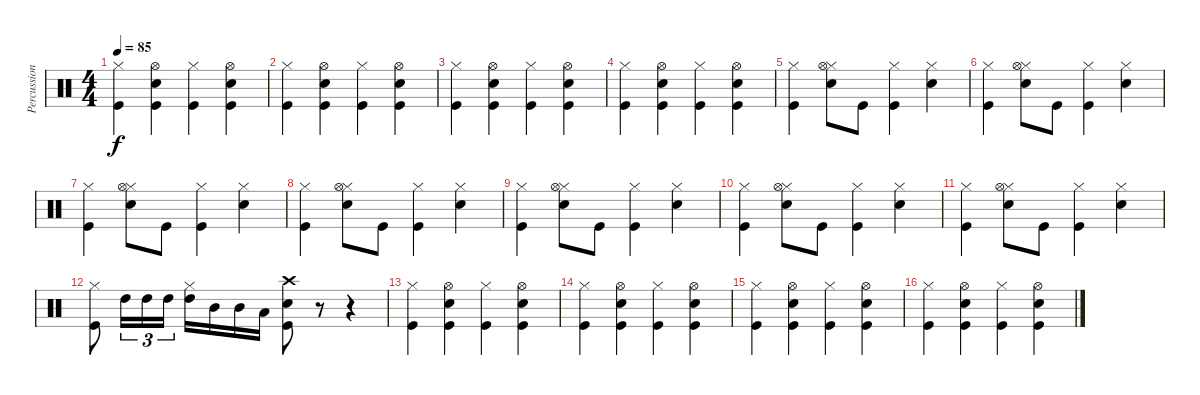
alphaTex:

\track ("Percussions" "Percussion") {instrument percussion}
\staff {score}
\articulation defaults
\ts (4 4)
\tempo 85
\clef neutral
\ks c
("Kick (hit)" "Hi-Hat (closed)").4{dy f} ("Kick (hit)" "Snare (hit) 2" "Hi-Hat (open)").4 ("Kick (hit)" "Hi-Hat (closed)").4 ("Kick (hit)" "Snare (hit) 2" "Hi-Hat (open)").4 |
("Kick (hit)" "Hi-Hat (closed)").4 ("Kick (hit)" "Snare (hit) 2" "Hi-Hat (open)").4 ("Kick (hit)" "Hi-Hat (closed)").4 ("Kick (hit)" "Snare (hit) 2" "Hi-Hat (open)").4 |
("Kick (hit)" "Hi-Hat (closed)").4 ("Kick (hit)" "Snare (hit) 2" "Hi-Hat (open)").4 ("Kick (hit)" "Hi-Hat (closed)").4 ("Kick (hit)" "Snare (hit) 2" "Hi-Hat (open)").4 |
("Kick (hit)" "Hi-Hat (closed)").4 ("Kick (hit)" "Snare (hit) 2" "Hi-Hat (open)").4 ("Kick (hit)" "Hi-Hat (closed)").4 ("Kick (hit)" "Snare (hit) 2" "Hi-Hat (open)").4 |
("Hi-Hat (closed)" "Kick (hit)").4 ("Hi-Hat (closed)" "Hi-Hat (open)" "Snare (hit) 2").8 "Kick (hit)".8 ("Hi-Hat (closed)" "Kick (hit)").4 ("Hi-Hat (closed)" "Snare (hit) 2").4 |
("Hi-Hat (closed)" "Kick (hit)").4 ("Hi-Hat (closed)" "Hi-Hat (open)" "Snare (hit) 2").8 "Kick (hit)".8 ("Hi-Hat (closed)" "Kick (hit)").4 ("Hi-Hat (closed)" "Snare (hit) 2").4 |
("Hi-Hat (closed)" "Kick (hit)").4 ("Hi-Hat (closed)" "Hi-Hat (open)" "Snare (hit) 2").8 "Kick (hit)".8 ("Hi-Hat (closed)" "Kick (hit)").4 ("Hi-Hat (closed)" "Snare (hit) 2").4 |
("Hi-Hat (closed)" "Kick (hit)").4 ("Hi-Hat (closed)" "Hi-Hat (open)" "Snare (hit) 2").8 "Kick (hit)".8 ("Hi-Hat (closed)" "Kick (hit)").4 ("Hi-Hat (closed)" "Snare (hit) 2").4 |
("Hi-Hat (closed)" "Kick (hit)").4 ("Hi-Hat (closed)" "Hi-Hat (open)" "Snare (hit) 2").8 "Kick (hit)".8 ("Hi-Hat (closed)" "Kick (hit)").4 ("Hi-Hat (closed)" "Snare (hit) 2").4 |
("Hi-Hat (closed)" "Kick (hit)").4 ("Hi-Hat (closed)" "Hi-Hat (open)" "Snare (hit) 2").8 "Kick (hit)".8 ("Hi-Hat (closed)" "Kick (hit)").4 ("Hi-Hat (closed)" "Snare (hit) 2").4 |
("Hi-Hat (closed)" "Kick (hit)").4 ("Hi-Hat (closed)" "Hi-Hat (open)" "Snare (hit) 2").8 "Kick (hit)".8 ("Hi-Hat (closed)" "Kick (hit)").4 ("Hi-Hat (closed)" "Snare (hit) 2").4 |
("Kick (hit)" "Hi-Hat (closed)").8 "High Tom (hit)".16{tu (3 2)} "High Tom (hit)".16{tu (3 2)} "High Tom (hit)".16{tu (3 2)} ("Hi-Hat (closed)" "High Tom (hit)").16 "Mid Tom (hit)".16 "Mid Tom (hit)".16 "Low Tom (hit)".16 ("Snare (hit) 2" "Kick (hit)" "Crash high (hit)").8 r.8 r.4 |
("Kick (hit)" "Hi-Hat (closed)").4 ("Kick (hit)" "Snare (hit) 2" "Hi-Hat (open)").4 ("Kick (hit)" "Hi-Hat (closed)").4 ("Kick (hit)" "Snare (hit) 2" "Hi-Hat (open)").4 |
("Kick (hit)" "Hi-Hat (closed)").4 ("Kick (hit)" "Snare (hit) 2" "Hi-Hat (open)").4 ("Kick (hit)" "Hi-Hat (closed)").4 ("Kick (hit)" "Snare (hit) 2" "Hi-Hat (open)").4 |
("Kick (hit)" "Hi-Hat (closed)").4 ("Kick (hit)" "Snare (hit) 2" "Hi-Hat (open)").4 ("Kick (hit)" "Hi-Hat (closed)").4 ("Kick (hit)" "Snare (hit) 2" "Hi-Hat (open)").4 |
("Kick (hit)" "Hi-Hat (closed)").4 ("Kick (hit)" "Snare (hit) 2" "Hi-Hat (open)").4 ("Kick (hit)" "Hi-Hat (closed)").4 ("Kick (hit)" "Snare (hit) 2" "Hi-Hat (open)").4
